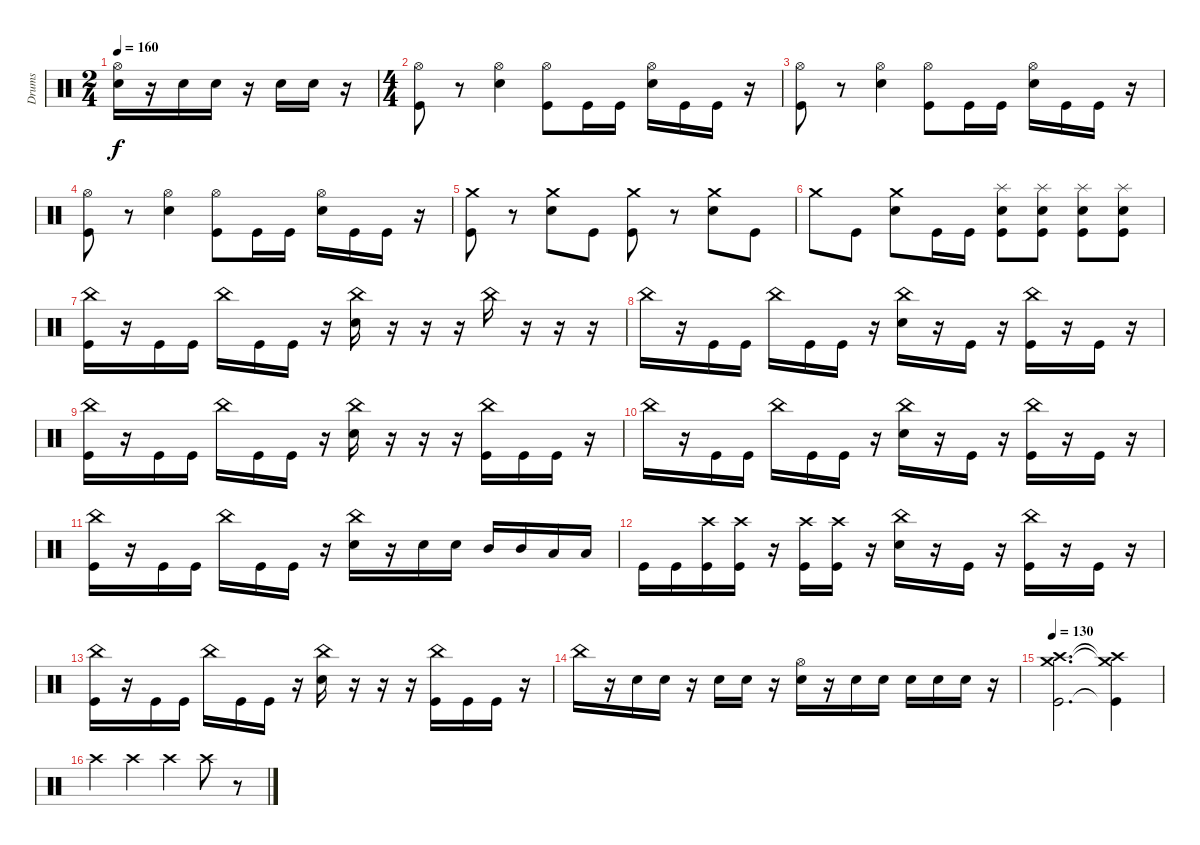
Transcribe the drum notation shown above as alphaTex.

\track ("Drums" "Drums") {instrument percussion}
\staff {score}
\articulation defaults
\ts (2 4)
\tempo 160
\clef neutral
\ks c
("Hi-Hat (open)" "Electric Snare (hit)").16{dy f} r.16{volume 0} "Electric Snare (hit)".16{volume 13} "Electric Snare (hit)".16 r.16 "Electric Snare (hit)".16 "Electric Snare (hit)".16 r.16 |
\ts (4 4)
("Hi-Hat (open)" "Kick (hit)").8 r.8{volume 0} ("Hi-Hat (open)" "Electric Snare (hit)").4{volume 13} ("Hi-Hat (open)" "Kick (hit)").8 "Kick (hit)".16 "Kick (hit)".16 ("Hi-Hat (open)" "Electric Snare (hit)").16 "Kick (hit)".16 "Kick (hit)".16 r.16 |
("Hi-Hat (open)" "Kick (hit)").8 r.8 ("Hi-Hat (open)" "Electric Snare (hit)").4 ("Hi-Hat (open)" "Kick (hit)").8 "Kick (hit)".16 "Kick (hit)".16 ("Hi-Hat (open)" "Electric Snare (hit)").16 "Kick (hit)".16 "Kick (hit)".16 r.16 |
("Hi-Hat (open)" "Kick (hit)").8 r.8 ("Hi-Hat (open)" "Electric Snare (hit)").4 ("Hi-Hat (open)" "Kick (hit)").8 "Kick (hit)".16 "Kick (hit)".16 ("Hi-Hat (open)" "Electric Snare (hit)").16 "Kick (hit)".16 "Kick (hit)".16 r.16 |
("Crash medium (hit)" "Kick (hit)").8 r.8 ("Crash medium (hit)" "Electric Snare (hit)").8 "Kick (hit)".8 ("Crash medium (hit)" "Kick (hit)").8 r.8 ("Crash medium (hit)" "Electric Snare (hit)").8 "Kick (hit)".8 |
"Crash medium (hit)".8 "Kick (hit)".8 ("Crash medium (hit)" "Electric Snare (hit)").8 "Kick (hit)".16 "Kick (hit)".16 ("Electric Snare (hit)" "Splash (hit)" "Kick (hit)").8 ("Electric Snare (hit)" "Splash (hit)" "Kick (hit)").8 ("Electric Snare (hit)" "Splash (hit)" "Kick (hit)").8 ("Electric Snare (hit)" "Splash (hit)" "Kick (hit)").8 |
("China (hit)" "Kick (hit)").16 r.16 "Kick (hit)".16 "Kick (hit)".16 "China (hit)".16 "Kick (hit)".16 "Kick (hit)".16 r.16 ("China (hit)" "Electric Snare (hit)").16 r.16 r.16 r.16 "China (hit)".16 r.16 r.16 r.16 |
"China (hit)".16 r.16 "Kick (hit)".16 "Kick (hit)".16 "China (hit)".16 "Kick (hit)".16 "Kick (hit)".16 r.16 ("China (hit)" "Electric Snare (hit)").16 r.16 "Kick (hit)".16 r.16 ("China (hit)" "Kick (hit)").16 r.16 "Kick (hit)".16 r.16 |
("China (hit)" "Kick (hit)").16 r.16 "Kick (hit)".16 "Kick (hit)".16 "China (hit)".16 "Kick (hit)".16 "Kick (hit)".16 r.16 ("China (hit)" "Electric Snare (hit)").16 r.16 r.16 r.16 ("China (hit)" "Kick (hit)").16 "Kick (hit)".16 "Kick (hit)".16 r.16 |
"China (hit)".16 r.16 "Kick (hit)".16 "Kick (hit)".16 "China (hit)".16 "Kick (hit)".16 "Kick (hit)".16 r.16 ("China (hit)" "Electric Snare (hit)").16 r.16 "Kick (hit)".16 r.16 ("China (hit)" "Kick (hit)").16 r.16 "Kick (hit)".16 r.16 |
("China (hit)" "Kick (hit)").16 r.16 "Kick (hit)".16 "Kick (hit)".16 "China (hit)".16 "Kick (hit)".16 "Kick (hit)".16 r.16 ("China (hit)" "Electric Snare (hit)").16 r.16 "Electric Snare (hit)".16 "Electric Snare (hit)".16 "Mid Tom (hit)".16 "Mid Tom (hit)".16 "Low Tom (hit)".16 "Low Tom (hit)".16 |
"Kick (hit)".16 "Kick (hit)".16 ("Crash high (hit)" "Kick (hit)").16 ("Crash high (hit)" "Kick (hit)").16 r.16 ("Crash high (hit)" "Kick (hit)").16 ("Crash high (hit)" "Kick (hit)").16 r.16 ("China (hit)" "Electric Snare (hit)").16 r.16 "Kick (hit)".16 r.16 ("China (hit)" "Kick (hit)").16 r.16 "Kick (hit)".16 r.16 |
("China (hit)" "Kick (hit)").16 r.16 "Kick (hit)".16 "Kick (hit)".16 "China (hit)".16 "Kick (hit)".16 "Kick (hit)".16 r.16 ("China (hit)" "Electric Snare (hit)").16 r.16 r.16 r.16 ("China (hit)" "Kick (hit)").16 "Kick (hit)".16 "Kick (hit)".16 r.16 |
"China (hit)".16 r.16 "Electric Snare (hit)".16 "Electric Snare (hit)".16 r.16 "Electric Snare (hit)".16 "Electric Snare (hit)".16 r.16 ("Electric Snare (hit)" "Hi-Hat (open)").16 r.16{volume 0} "Electric Snare (hit)".16{volume 13} "Electric Snare (hit)".16 "Electric Snare (hit)".16 "Electric Snare (hit)".16 "Electric Snare (hit)".16 r.16 |
\tempo 135
\tempo 130
("Crash high (hit)" "Crash medium (hit)" "Kick (hit)").2{d} ("Crash high (hit)"{t} "Crash medium (hit)"{t} "Kick (hit)"{t}).4{volume 5} |
"Crash high (hit)".4{volume 13} "Crash high (hit)".4 "Crash high (hit)".4 "Crash high (hit)".8 r.8{volume 0}
